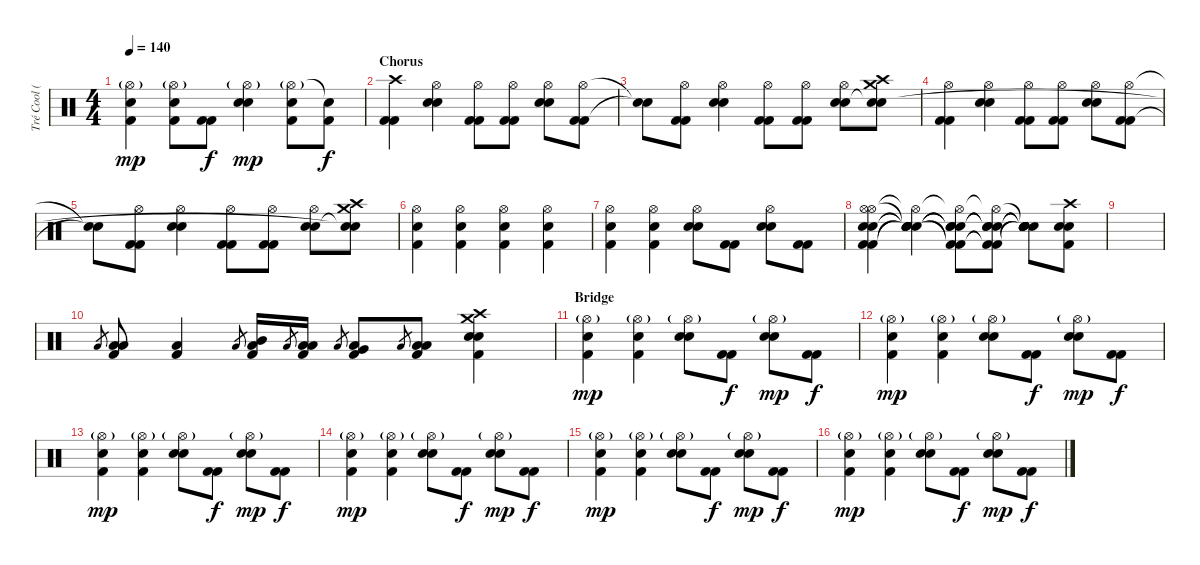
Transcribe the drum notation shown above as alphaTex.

\track ("Tré Cool (Drums)" "Tré Cool (") {instrument percussion}
\staff {score}
\articulation defaults
\ts (4 4)
\tempo 140
\clef neutral
\ks c
("Hi-Hat (open)"{g} "Electric Snare (hit)" "Kick (hit) 2").4{dy mp} ("Hi-Hat (open)"{g} "Electric Snare (hit)" "Kick (hit) 2").8 ("Kick (hit) 2" "Kick (hit) 2").8{dy f} ("Hi-Hat (open)"{g} "Electric Snare (hit)" "Electric Snare (hit)").4{dy mp} ("Hi-Hat (open)"{g} "Electric Snare (hit)"{tr (38 64)} "Kick (hit) 2").8 ("Electric Snare (hit)"{t} "Kick (hit) 2").8{dy f} |
\section ("" "Chorus")
("Crash high (hit)" "Kick (hit) 2" "Kick (hit) 2").4 ("Hi-Hat (open)" "Electric Snare (hit)" "Electric Snare (hit)").4 ("Hi-Hat (open)" "Kick (hit) 2" "Kick (hit) 2").8 ("Hi-Hat (open)" "Kick (hit) 2" "Kick (hit) 2").8 ("Hi-Hat (open)" "Electric Snare (hit)" "Electric Snare (hit)").8 ("Hi-Hat (open)" "Kick (hit) 2" "Kick (hit) 2").8 |
("Snare (hit)"{t} "Snare (hit)"{t}).8 ("Hi-Hat (open)" "Kick (hit) 2" "Kick (hit) 2").8 ("Hi-Hat (open)" "Electric Snare (hit)" "Electric Snare (hit)").4 ("Hi-Hat (open)" "Kick (hit) 2" "Kick (hit) 2").8 ("Hi-Hat (open)" "Kick (hit) 2" "Kick (hit) 2").8 ("Hi-Hat (open)" "Electric Snare (hit)" "Electric Snare (hit)").8 ("Crash high (hit)" "Crash medium (hit)" "Snare (hit)"{t} "Snare (hit)").8 |
("Hi-Hat (open)" "Kick (hit) 2" "Kick (hit) 2").4 ("Hi-Hat (open)" "Electric Snare (hit)" "Electric Snare (hit)").4 ("Hi-Hat (open)" "Kick (hit) 2" "Kick (hit) 2").8 ("Hi-Hat (open)" "Kick (hit) 2" "Kick (hit) 2").8 ("Hi-Hat (open)" "Electric Snare (hit)" "Electric Snare (hit)").8 ("Hi-Hat (open)" "Kick (hit) 2" "Kick (hit) 2").8 |
("Snare (hit)"{t} "Snare (hit)"{t}).8 ("Hi-Hat (open)" "Kick (hit) 2" "Kick (hit) 2").8 ("Hi-Hat (open)" "Electric Snare (hit)" "Electric Snare (hit)").4 ("Hi-Hat (open)" "Kick (hit) 2" "Kick (hit) 2").8 ("Hi-Hat (open)" "Kick (hit) 2" "Kick (hit) 2").8 ("Hi-Hat (open)" "Electric Snare (hit)" "Electric Snare (hit)").8 ("Crash high (hit)" "Crash medium (hit)" "Snare (hit)"{t} "Snare (hit)"{t}).8 |
("Hi-Hat (open)" "Electric Snare (hit)" "Kick (hit) 2").4 ("Hi-Hat (open)" "Electric Snare (hit)" "Kick (hit) 2").4 ("Hi-Hat (open)" "Electric Snare (hit)" "Kick (hit) 2").4 ("Hi-Hat (open)" "Electric Snare (hit)" "Kick (hit) 2").4 |
("Hi-Hat (open)" "Electric Snare (hit)" "Kick (hit) 2").4 ("Hi-Hat (open)" "Electric Snare (hit)" "Kick (hit) 2").4 ("Hi-Hat (open)" "Electric Snare (hit)" "Electric Snare (hit)").8 ("Kick (hit) 2" "Kick (hit) 2").8 ("Hi-Hat (open)" "Electric Snare (hit)" "Electric Snare (hit)").8 ("Kick (hit) 2" "Kick (hit) 2").8 |
("Hi-Hat (open)" "Hi-Hat (open)" "Electric Snare (hit)" "Electric Snare (hit)" "Kick (hit) 2" "Kick (hit) 2").4 ("Hi-Hat (open)"{t} "Snare (hit)"{t} "Snare (hit)"{t} "Snare (hit)"{t} "Electric Snare (hit)"{t} "Electric Snare (hit)"{t}).4 ("Hi-Hat (open)"{t} "Snare (hit)"{t} "Snare (hit)"{t} "Snare (hit)"{t} "Kick (hit) 2"{t} "Kick (hit) 2"{t}).8 ("Hi-Hat (open)"{t} "Snare (hit)"{t} "Snare (hit)"{t} "Snare (hit)"{t} "Kick (hit) 2"{t} "Kick (hit) 2"{t}).8 ("Snare (hit)"{t} "Snare (hit)"{t} "Snare (hit)"{t} "Snare (hit)"{t} "Snare (hit)"{t} "Snare (hit)"{t}).8 ("Crash high (hit)" "Electric Snare (hit)" "Electric Snare (hit)" "Kick (hit) 2").8 |
|
"Low Tom (hit)".8{gr} ("Low Tom (hit)" "Low Tom (hit)" "Kick (hit) 2").8 ("Low Floor Tom (hit)" "Kick (hit) 2").4 "Low Tom (hit)".8{gr} ("Mid Tom (hit)" "Low Tom (hit)" "Kick (hit) 2").16 "Low Tom (hit)".8{gr} ("Low Tom (hit)" "Low Tom (hit)" "Kick (hit) 2").16 "Low Tom (hit)".8{gr} ("Very Low Tom (hit)" "Low Tom (hit)" "Kick (hit) 2").8 "Low Tom (hit)".8{gr} ("Low Floor Tom (hit)" "Low Tom (hit)" "Kick (hit) 2").8 ("Crash high (hit)" "Electric Snare (hit)" "Electric Snare (hit)" "Crash medium (hit)" "Kick (hit) 2").4 |
\section ("" "Bridge")
("Hi-Hat (open)"{g} "Electric Snare (hit)" "Kick (hit) 2").4{dy mp} ("Hi-Hat (open)"{g} "Electric Snare (hit)" "Kick (hit) 2").4 ("Hi-Hat (open)"{g} "Electric Snare (hit)" "Electric Snare (hit)").8 ("Kick (hit) 2" "Kick (hit) 2").8{dy f} ("Hi-Hat (open)"{g} "Electric Snare (hit)" "Electric Snare (hit)").8{dy mp} ("Kick (hit) 2" "Kick (hit) 2").8{dy f} |
("Hi-Hat (open)"{g} "Electric Snare (hit)" "Kick (hit) 2").4{dy mp} ("Hi-Hat (open)"{g} "Electric Snare (hit)" "Kick (hit) 2").4 ("Hi-Hat (open)"{g} "Electric Snare (hit)" "Electric Snare (hit)").8 ("Kick (hit) 2" "Kick (hit) 2").8{dy f} ("Hi-Hat (open)"{g} "Electric Snare (hit)" "Electric Snare (hit)").8{dy mp} ("Kick (hit) 2" "Kick (hit) 2").8{dy f} |
("Hi-Hat (open)"{g} "Electric Snare (hit)" "Kick (hit) 2").4{dy mp} ("Hi-Hat (open)"{g} "Electric Snare (hit)" "Kick (hit) 2").4 ("Hi-Hat (open)"{g} "Electric Snare (hit)" "Electric Snare (hit)").8 ("Kick (hit) 2" "Kick (hit) 2").8{dy f} ("Hi-Hat (open)"{g} "Electric Snare (hit)" "Electric Snare (hit)").8{dy mp} ("Kick (hit) 2" "Kick (hit) 2").8{dy f} |
("Hi-Hat (open)"{g} "Electric Snare (hit)" "Kick (hit) 2").4{dy mp} ("Hi-Hat (open)"{g} "Electric Snare (hit)" "Kick (hit) 2").4 ("Hi-Hat (open)"{g} "Electric Snare (hit)" "Electric Snare (hit)").8 ("Kick (hit) 2" "Kick (hit) 2").8{dy f} ("Hi-Hat (open)"{g} "Electric Snare (hit)" "Electric Snare (hit)").8{dy mp} ("Kick (hit) 2" "Kick (hit) 2").8{dy f} |
("Hi-Hat (open)"{g} "Electric Snare (hit)" "Kick (hit) 2").4{dy mp} ("Hi-Hat (open)"{g} "Electric Snare (hit)" "Kick (hit) 2").4 ("Hi-Hat (open)"{g} "Electric Snare (hit)" "Electric Snare (hit)").8 ("Kick (hit) 2" "Kick (hit) 2").8{dy f} ("Hi-Hat (open)"{g} "Electric Snare (hit)" "Electric Snare (hit)").8{dy mp} ("Kick (hit) 2" "Kick (hit) 2").8{dy f} |
("Hi-Hat (open)"{g} "Electric Snare (hit)" "Kick (hit) 2").4{dy mp} ("Hi-Hat (open)"{g} "Electric Snare (hit)" "Kick (hit) 2").4 ("Hi-Hat (open)"{g} "Electric Snare (hit)" "Electric Snare (hit)").8 ("Kick (hit) 2" "Kick (hit) 2").8{dy f} ("Hi-Hat (open)"{g} "Electric Snare (hit)" "Electric Snare (hit)").8{dy mp} ("Kick (hit) 2" "Kick (hit) 2").8{dy f}
